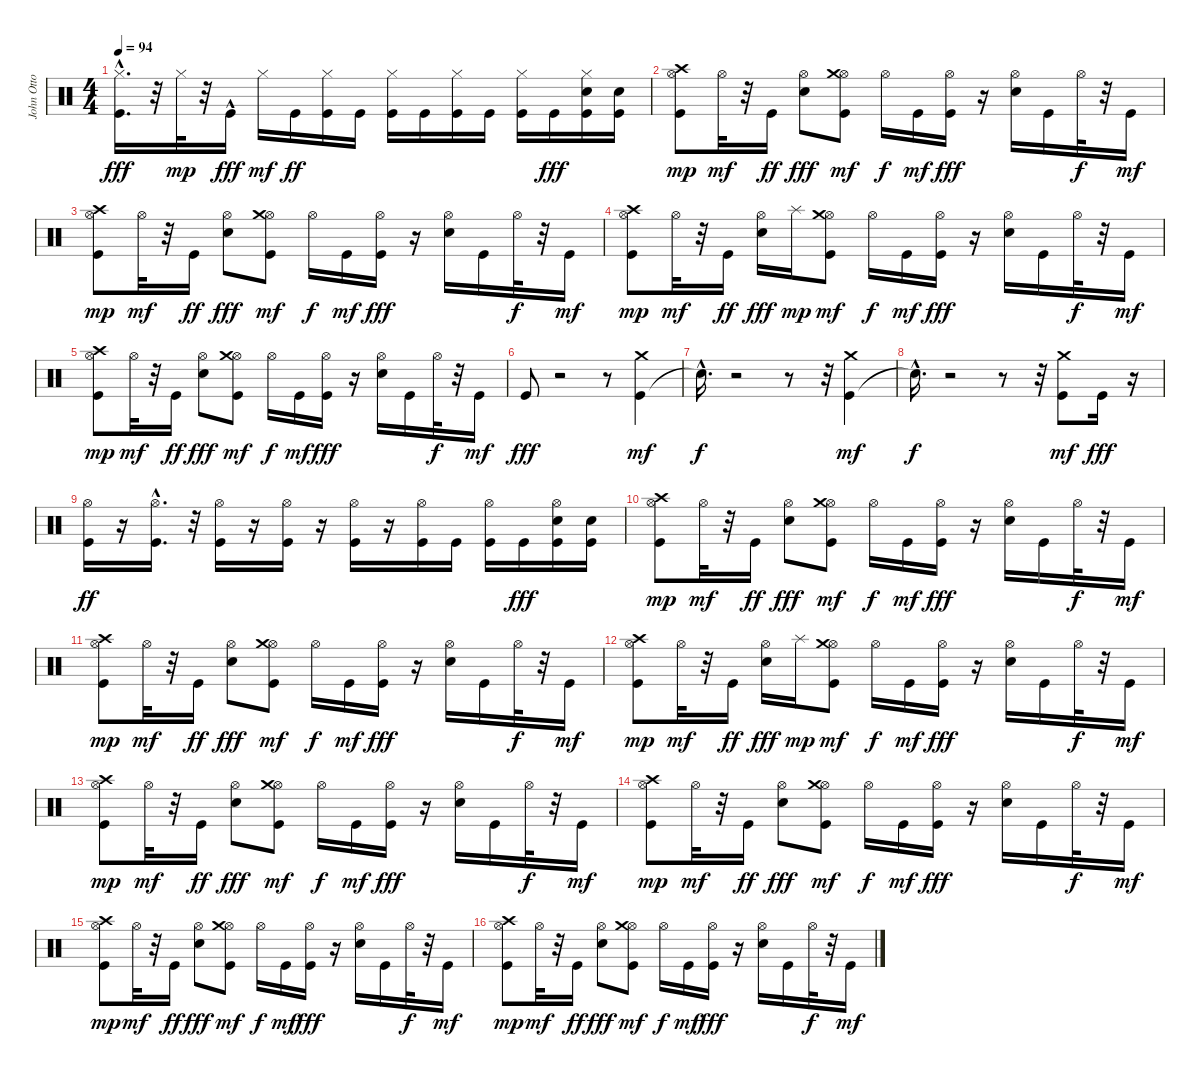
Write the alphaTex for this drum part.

\track ("John Otto" "John Otto") {instrument percussion}
\staff {score}
\articulation defaults
\ts (4 4)
\tempo 94
\clef neutral
\ks c
("Hi-Hat (closed)"{hac} "Kick (hit)").16{d dy fff} r.32 "Hi-Hat (closed)".32{dy mp} r.32 "Kick (hit)"{hac}.16{dy fff} "Hi-Hat (closed)".16{dy mf} "Kick (hit)".16{dy ff} ("Hi-Hat (closed)" "Kick (hit)").16 "Kick (hit)".16 ("Hi-Hat (closed)" "Kick (hit)").16 "Kick (hit)".16 ("Hi-Hat (closed)" "Kick (hit)").16 "Kick (hit)".16 ("Hi-Hat (closed)" "Kick (hit)").16 "Kick (hit)".16{dy fff} ("Hi-Hat (closed)" "Kick (hit)" "Electric Snare (hit)").16 ("Kick (hit)" "Electric Snare (hit)").16 |
("Hi-Hat (open)" "Kick (hit)" "Crash high (hit)").8{dy mp} "Hi-Hat (open)".32{dy mf} r.32 "Kick (hit)".16{dy ff} ("Hi-Hat (open)" "Electric Snare (hit)").8{dy fff} ("Hi-Hat (open)" "Kick (hit)" "Crash medium (hit)").8{dy mf} "Hi-Hat (open)".16{dy f} "Kick (hit)".16{dy mf} ("Hi-Hat (open)" "Kick (hit)").16{dy fff} r.16 ("Hi-Hat (open)" "Electric Snare (hit)").16 "Kick (hit)".16 "Hi-Hat (open)".32{dy f} r.32 "Kick (hit)".16{dy mf} |
("Hi-Hat (open)" "Kick (hit)" "Crash high (hit)").8{dy mp} "Hi-Hat (open)".32{dy mf} r.32 "Kick (hit)".16{dy ff} ("Hi-Hat (open)" "Electric Snare (hit)").8{dy fff} ("Hi-Hat (open)" "Kick (hit)" "Crash medium (hit)").8{dy mf} "Hi-Hat (open)".16{dy f} "Kick (hit)".16{dy mf} ("Hi-Hat (open)" "Kick (hit)").16{dy fff} r.16 ("Hi-Hat (open)" "Electric Snare (hit)").16 "Kick (hit)".16 "Hi-Hat (open)".32{dy f} r.32 "Kick (hit)".16{dy mf} |
("Hi-Hat (open)" "Kick (hit)" "Crash high (hit)").8{dy mp} "Hi-Hat (open)".32{dy mf} r.32 "Kick (hit)".16{dy ff} ("Hi-Hat (open)" "Electric Snare (hit)").16{dy fff} "Splash (hit)".16{dy mp} ("Hi-Hat (open)" "Kick (hit)" "Crash medium (hit)").8{dy mf} "Hi-Hat (open)".16{dy f} "Kick (hit)".16{dy mf} ("Hi-Hat (open)" "Kick (hit)").16{dy fff} r.16 ("Hi-Hat (open)" "Electric Snare (hit)").16 "Kick (hit)".16 "Hi-Hat (open)".32{dy f} r.32 "Kick (hit)".16{dy mf} |
("Hi-Hat (open)" "Kick (hit)" "Crash high (hit)").8{dy mp} "Hi-Hat (open)".32{dy mf} r.32 "Kick (hit)".16{dy ff} ("Hi-Hat (open)" "Electric Snare (hit)").8{dy fff} ("Hi-Hat (open)" "Kick (hit)" "Crash medium (hit)").8{dy mf} "Hi-Hat (open)".16{dy f} "Kick (hit)".16{dy mf} ("Hi-Hat (open)" "Kick (hit)").16{dy fff} r.16 ("Hi-Hat (open)" "Electric Snare (hit)").16 "Kick (hit)".16 "Hi-Hat (open)".32{dy f} r.32 "Kick (hit)".16{dy mf} |
"Kick (hit)".8{dy fff} r.2 r.8 ("Kick (hit)" "Crash medium (hit)").4{dy mf} |
"Snare (hit)"{hac t}.16{d dy f} r.2 r.8 r.32 ("Kick (hit)" "Crash medium (hit)").4{dy mf} |
"Snare (hit)"{hac t}.16{d dy f} r.2 r.8 r.32 ("Kick (hit)" "Crash medium (hit)").8{dy mf} "Kick (hit)".16{dy fff} r.16 |
("Hi-Hat (open)" "Kick (hit)").16{dy ff} r.16 ("Hi-Hat (open)" "Kick (hit)"{hac}).16{d} r.32 ("Hi-Hat (open)" "Kick (hit)").16 r.16 ("Hi-Hat (open)" "Kick (hit)").16 r.16 ("Hi-Hat (open)" "Kick (hit)").16 r.16 ("Hi-Hat (open)" "Kick (hit)").16 "Kick (hit)".16 ("Hi-Hat (open)" "Kick (hit)").16 "Kick (hit)".16{dy fff} ("Hi-Hat (open)" "Kick (hit)" "Electric Snare (hit)").16 ("Kick (hit)" "Electric Snare (hit)").16 |
("Hi-Hat (open)" "Kick (hit)" "Crash high (hit)").8{dy mp} "Hi-Hat (open)".32{dy mf} r.32 "Kick (hit)".16{dy ff} ("Hi-Hat (open)" "Electric Snare (hit)").8{dy fff} ("Hi-Hat (open)" "Kick (hit)" "Crash medium (hit)").8{dy mf} "Hi-Hat (open)".16{dy f} "Kick (hit)".16{dy mf} ("Hi-Hat (open)" "Kick (hit)").16{dy fff} r.16 ("Hi-Hat (open)" "Electric Snare (hit)").16 "Kick (hit)".16 "Hi-Hat (open)".32{dy f} r.32 "Kick (hit)".16{dy mf} |
("Hi-Hat (open)" "Kick (hit)" "Crash high (hit)").8{dy mp} "Hi-Hat (open)".32{dy mf} r.32 "Kick (hit)".16{dy ff} ("Hi-Hat (open)" "Electric Snare (hit)").8{dy fff} ("Hi-Hat (open)" "Kick (hit)" "Crash medium (hit)").8{dy mf} "Hi-Hat (open)".16{dy f} "Kick (hit)".16{dy mf} ("Hi-Hat (open)" "Kick (hit)").16{dy fff} r.16 ("Hi-Hat (open)" "Electric Snare (hit)").16 "Kick (hit)".16 "Hi-Hat (open)".32{dy f} r.32 "Kick (hit)".16{dy mf} |
("Hi-Hat (open)" "Kick (hit)" "Crash high (hit)").8{dy mp} "Hi-Hat (open)".32{dy mf} r.32 "Kick (hit)".16{dy ff} ("Hi-Hat (open)" "Electric Snare (hit)").16{dy fff} "Splash (hit)".16{dy mp} ("Hi-Hat (open)" "Kick (hit)" "Crash medium (hit)").8{dy mf} "Hi-Hat (open)".16{dy f} "Kick (hit)".16{dy mf} ("Hi-Hat (open)" "Kick (hit)").16{dy fff} r.16 ("Hi-Hat (open)" "Electric Snare (hit)").16 "Kick (hit)".16 "Hi-Hat (open)".32{dy f} r.32 "Kick (hit)".16{dy mf} |
("Hi-Hat (open)" "Kick (hit)" "Crash high (hit)").8{dy mp} "Hi-Hat (open)".32{dy mf} r.32 "Kick (hit)".16{dy ff} ("Hi-Hat (open)" "Electric Snare (hit)").8{dy fff} ("Hi-Hat (open)" "Kick (hit)" "Crash medium (hit)").8{dy mf} "Hi-Hat (open)".16{dy f} "Kick (hit)".16{dy mf} ("Hi-Hat (open)" "Kick (hit)").16{dy fff} r.16 ("Hi-Hat (open)" "Electric Snare (hit)").16 "Kick (hit)".16 "Hi-Hat (open)".32{dy f} r.32 "Kick (hit)".16{dy mf} |
("Hi-Hat (open)" "Kick (hit)" "Crash high (hit)").8{dy mp} "Hi-Hat (open)".32{dy mf} r.32 "Kick (hit)".16{dy ff} ("Hi-Hat (open)" "Electric Snare (hit)").8{dy fff} ("Hi-Hat (open)" "Kick (hit)" "Crash medium (hit)").8{dy mf} "Hi-Hat (open)".16{dy f} "Kick (hit)".16{dy mf} ("Hi-Hat (open)" "Kick (hit)").16{dy fff} r.16 ("Hi-Hat (open)" "Electric Snare (hit)").16 "Kick (hit)".16 "Hi-Hat (open)".32{dy f} r.32 "Kick (hit)".16{dy mf} |
("Hi-Hat (open)" "Kick (hit)" "Crash high (hit)").8{dy mp} "Hi-Hat (open)".32{dy mf} r.32 "Kick (hit)".16{dy ff} ("Hi-Hat (open)" "Electric Snare (hit)").8{dy fff} ("Hi-Hat (open)" "Kick (hit)" "Crash medium (hit)").8{dy mf} "Hi-Hat (open)".16{dy f} "Kick (hit)".16{dy mf} ("Hi-Hat (open)" "Kick (hit)").16{dy fff} r.16 ("Hi-Hat (open)" "Electric Snare (hit)").16 "Kick (hit)".16 "Hi-Hat (open)".32{dy f} r.32 "Kick (hit)".16{dy mf} |
("Hi-Hat (open)" "Kick (hit)" "Crash high (hit)").8{dy mp} "Hi-Hat (open)".32{dy mf} r.32 "Kick (hit)".16{dy ff} ("Hi-Hat (open)" "Electric Snare (hit)").8{dy fff} ("Hi-Hat (open)" "Kick (hit)" "Crash medium (hit)").8{dy mf} "Hi-Hat (open)".16{dy f} "Kick (hit)".16{dy mf} ("Hi-Hat (open)" "Kick (hit)").16{dy fff} r.16 ("Hi-Hat (open)" "Electric Snare (hit)").16 "Kick (hit)".16 "Hi-Hat (open)".32{dy f} r.32 "Kick (hit)".16{dy mf}
